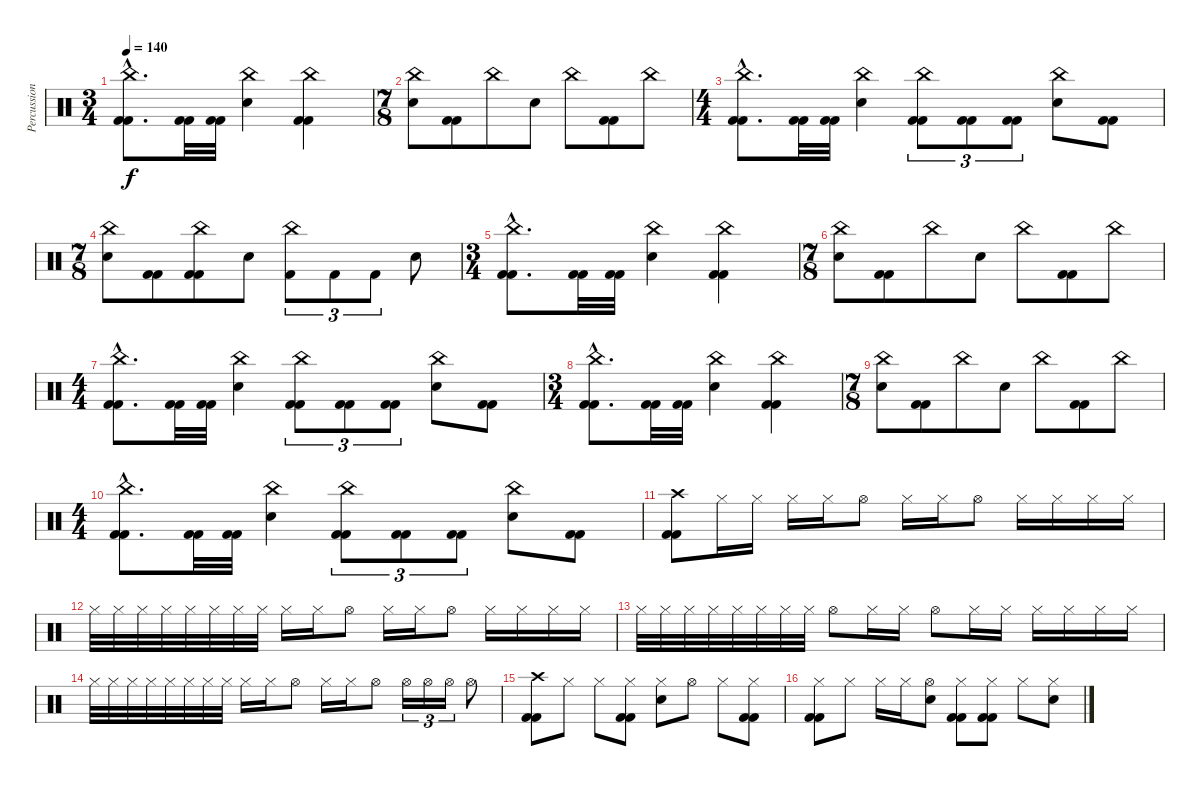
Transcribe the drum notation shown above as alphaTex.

\track ("Percussions" "Percussion") {instrument percussion}
\staff {score}
\articulation defaults
\ts (3 4)
\tempo 140
\clef neutral
\ks c
("Kick (hit) 2"{hac} "Kick (hit) 2"{hac} "China (hit)"{hac}).8{d dy f} ("Kick (hit) 2" "Kick (hit) 2").32 ("Kick (hit) 2" "Kick (hit) 2").32 ("Electric Snare (hit)" "China (hit)").4 ("Kick (hit) 2" "Kick (hit) 2" "China (hit)").4 |
\ts (7 8)
("Electric Snare (hit)" "China (hit)").8 ("Kick (hit) 2" "Kick (hit) 2").8 "China (hit)".8 "Electric Snare (hit)".8 "China (hit)".8 ("Kick (hit) 2" "Kick (hit) 2").8 "China (hit)".8 |
\ts (4 4)
("Kick (hit) 2"{hac} "Kick (hit) 2"{hac} "China (hit)"{hac}).8{d} ("Kick (hit) 2" "Kick (hit) 2").32 ("Kick (hit) 2" "Kick (hit) 2").32 ("Electric Snare (hit)" "China (hit)").4 ("Kick (hit) 2" "Kick (hit) 2" "China (hit)").8{tu (3 2)} ("Kick (hit) 2" "Kick (hit) 2").8{tu (3 2)} ("Kick (hit) 2" "Kick (hit) 2").8{tu (3 2)} ("Electric Snare (hit)" "China (hit)").8 ("Kick (hit) 2" "Kick (hit) 2").8 |
\ts (7 8)
("Electric Snare (hit)" "China (hit)").8 ("Kick (hit) 2" "Kick (hit) 2").8 ("Kick (hit) 2" "Kick (hit) 2" "China (hit)").8 "Electric Snare (hit)".8 ("Kick (hit) 2" "China (hit)").8{tu (3 2)} "Kick (hit) 2".8{tu (3 2)} "Kick (hit) 2".8{tu (3 2)} "Electric Snare (hit)".8 |
\ts (3 4)
("Kick (hit) 2"{hac} "Kick (hit) 2"{hac} "China (hit)"{hac}).8{d} ("Kick (hit) 2" "Kick (hit) 2").32 ("Kick (hit) 2" "Kick (hit) 2").32 ("Electric Snare (hit)" "China (hit)").4 ("Kick (hit) 2" "Kick (hit) 2" "China (hit)").4 |
\ts (7 8)
("Electric Snare (hit)" "China (hit)").8 ("Kick (hit) 2" "Kick (hit) 2").8 "China (hit)".8 "Electric Snare (hit)".8 "China (hit)".8 ("Kick (hit) 2" "Kick (hit) 2").8 "China (hit)".8 |
\ts (4 4)
("Kick (hit) 2"{hac} "Kick (hit) 2"{hac} "China (hit)"{hac}).8{d} ("Kick (hit) 2" "Kick (hit) 2").32 ("Kick (hit) 2" "Kick (hit) 2").32 ("Electric Snare (hit)" "China (hit)").4 ("Kick (hit) 2" "Kick (hit) 2" "China (hit)").8{tu (3 2)} ("Kick (hit) 2" "Kick (hit) 2").8{tu (3 2)} ("Kick (hit) 2" "Kick (hit) 2").8{tu (3 2)} ("Electric Snare (hit)" "China (hit)").8 ("Kick (hit) 2" "Kick (hit) 2").8 |
\ts (3 4)
("Kick (hit) 2"{hac} "Kick (hit) 2"{hac} "China (hit)"{hac}).8{d} ("Kick (hit) 2" "Kick (hit) 2").32 ("Kick (hit) 2" "Kick (hit) 2").32 ("Electric Snare (hit)" "China (hit)").4 ("Kick (hit) 2" "Kick (hit) 2" "China (hit)").4 |
\ts (7 8)
("Electric Snare (hit)" "China (hit)").8 ("Kick (hit) 2" "Kick (hit) 2").8 "China (hit)".8 "Electric Snare (hit)".8 "China (hit)".8 ("Kick (hit) 2" "Kick (hit) 2").8 "China (hit)".8 |
\ts (4 4)
("Kick (hit) 2"{hac} "Kick (hit) 2"{hac} "China (hit)"{hac}).8{d} ("Kick (hit) 2" "Kick (hit) 2").32 ("Kick (hit) 2" "Kick (hit) 2").32 ("Electric Snare (hit)" "China (hit)").4 ("Kick (hit) 2" "Kick (hit) 2" "China (hit)").8{tu (3 2)} ("Kick (hit) 2" "Kick (hit) 2").8{tu (3 2)} ("Kick (hit) 2" "Kick (hit) 2").8{tu (3 2)} ("Electric Snare (hit)" "China (hit)").8 ("Kick (hit) 2" "Kick (hit) 2").8 |
("Kick (hit) 2" "Kick (hit) 2" "Crash high (hit)").8 "Hi-Hat (closed)".16 "Hi-Hat (closed)".16 "Hi-Hat (closed)".16 "Hi-Hat (closed)".16 "Hi-Hat (open)".8 "Hi-Hat (closed)".16 "Hi-Hat (closed)".16 "Hi-Hat (open)".8 "Hi-Hat (closed)".16 "Hi-Hat (closed)".16 "Hi-Hat (closed)".16 "Hi-Hat (closed)".16 |
"Hi-Hat (closed)".32 "Hi-Hat (closed)".32 "Hi-Hat (closed)".32 "Hi-Hat (closed)".32 "Hi-Hat (closed)".32 "Hi-Hat (closed)".32 "Hi-Hat (closed)".32 "Hi-Hat (closed)".32 "Hi-Hat (closed)".16 "Hi-Hat (closed)".16 "Hi-Hat (open)".8 "Hi-Hat (closed)".16 "Hi-Hat (closed)".16 "Hi-Hat (open)".8 "Hi-Hat (closed)".16 "Hi-Hat (closed)".16 "Hi-Hat (closed)".16 "Hi-Hat (closed)".16 |
"Hi-Hat (closed)".32 "Hi-Hat (closed)".32 "Hi-Hat (closed)".32 "Hi-Hat (closed)".32 "Hi-Hat (closed)".32 "Hi-Hat (closed)".32 "Hi-Hat (closed)".32 "Hi-Hat (closed)".32 "Hi-Hat (open)".8 "Hi-Hat (closed)".16 "Hi-Hat (closed)".16 "Hi-Hat (open)".8 "Hi-Hat (closed)".16 "Hi-Hat (closed)".16 "Hi-Hat (closed)".16 "Hi-Hat (closed)".16 "Hi-Hat (closed)".16 "Hi-Hat (closed)".16 |
"Hi-Hat (closed)".32 "Hi-Hat (closed)".32 "Hi-Hat (closed)".32 "Hi-Hat (closed)".32 "Hi-Hat (closed)".32 "Hi-Hat (closed)".32 "Hi-Hat (closed)".32 "Hi-Hat (closed)".32 "Hi-Hat (closed)".16 "Hi-Hat (closed)".16 "Hi-Hat (open)".8 "Hi-Hat (closed)".16 "Hi-Hat (closed)".16 "Hi-Hat (open)".8 "Hi-Hat (open)".16{tu (3 2)} "Hi-Hat (open)".16{tu (3 2)} "Hi-Hat (open)".16{tu (3 2)} "Hi-Hat (open)".8 |
("Kick (hit) 2" "Kick (hit) 2" "Crash high (hit)").8 "Hi-Hat (closed)".8 "Hi-Hat (closed)".8 ("Kick (hit) 2" "Kick (hit) 2" "Hi-Hat (closed)").8 ("Electric Snare (hit)" "Hi-Hat (closed)").8 "Hi-Hat (open)".8 "Hi-Hat (closed)".8 ("Kick (hit) 2" "Kick (hit) 2" "Hi-Hat (closed)").8 |
("Kick (hit) 2" "Kick (hit) 2" "Hi-Hat (closed)").8 "Hi-Hat (closed)".8 "Hi-Hat (closed)".16 "Hi-Hat (closed)".16 ("Electric Snare (hit)" "Hi-Hat (open)").8 ("Kick (hit) 2" "Kick (hit) 2" "Hi-Hat (closed)").8 ("Kick (hit) 2" "Kick (hit) 2" "Hi-Hat (closed)").8 "Hi-Hat (closed)".8 ("Electric Snare (hit)" "Hi-Hat (closed)").8
